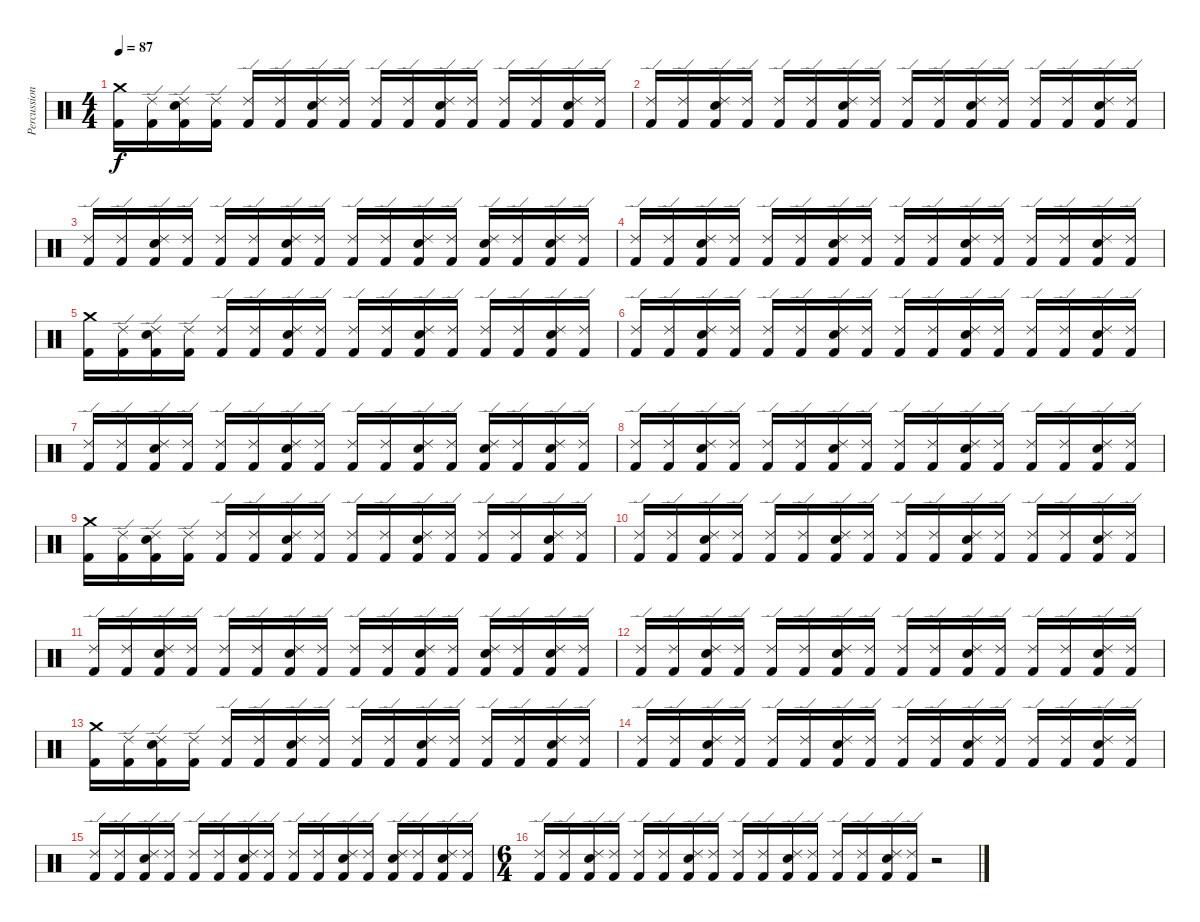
\track ("Percussion" "Percussion") {instrument percussion}
\staff {score}
\articulation defaults
\ts (4 4)
\tempo 87
\clef neutral
\ks c
("Crash medium (hit)" "Kick (hit) 2").16{dy f} ("Ride (edge) 2" "Kick (hit) 2").16 ("Ride (edge) 2" "Snare (hit) 2" "Kick (hit) 2").16 ("Ride (edge) 2" "Kick (hit) 2").16 ("Ride (edge) 2" "Kick (hit) 2").16 ("Ride (edge) 2" "Kick (hit) 2").16 ("Ride (edge) 2" "Snare (hit) 2" "Kick (hit) 2").16 ("Ride (edge) 2" "Kick (hit) 2").16 ("Ride (edge) 2" "Kick (hit) 2").16 ("Ride (edge) 2" "Kick (hit) 2").16 ("Ride (edge) 2" "Snare (hit) 2" "Kick (hit) 2").16 ("Ride (edge) 2" "Kick (hit) 2").16 ("Ride (edge) 2" "Kick (hit) 2").16 ("Ride (edge) 2" "Kick (hit) 2").16 ("Ride (edge) 2" "Snare (hit) 2" "Kick (hit) 2").16 ("Ride (edge) 2" "Kick (hit) 2").16 |
("Ride (edge) 2" "Kick (hit) 2").16 ("Ride (edge) 2" "Kick (hit) 2").16 ("Ride (edge) 2" "Snare (hit) 2" "Kick (hit) 2").16 ("Ride (edge) 2" "Kick (hit) 2").16 ("Ride (edge) 2" "Kick (hit) 2").16 ("Ride (edge) 2" "Kick (hit) 2").16 ("Ride (edge) 2" "Snare (hit) 2" "Kick (hit) 2").16 ("Ride (edge) 2" "Kick (hit) 2").16 ("Ride (edge) 2" "Kick (hit) 2").16 ("Ride (edge) 2" "Kick (hit) 2").16 ("Ride (edge) 2" "Snare (hit) 2" "Kick (hit) 2").16 ("Ride (edge) 2" "Kick (hit) 2").16 ("Ride (edge) 2" "Kick (hit) 2").16 ("Ride (edge) 2" "Kick (hit) 2").16 ("Ride (edge) 2" "Snare (hit) 2" "Kick (hit) 2").16 ("Ride (edge) 2" "Kick (hit) 2").16 |
("Ride (edge) 2" "Kick (hit) 2").16 ("Ride (edge) 2" "Kick (hit) 2").16 ("Ride (edge) 2" "Snare (hit) 2" "Kick (hit) 2").16 ("Ride (edge) 2" "Kick (hit) 2").16 ("Ride (edge) 2" "Kick (hit) 2").16 ("Ride (edge) 2" "Kick (hit) 2").16 ("Ride (edge) 2" "Snare (hit) 2" "Kick (hit) 2").16 ("Ride (edge) 2" "Kick (hit) 2").16 ("Ride (edge) 2" "Kick (hit) 2").16 ("Ride (edge) 2" "Kick (hit) 2").16 ("Ride (edge) 2" "Snare (hit) 2" "Kick (hit) 2").16 ("Ride (edge) 2" "Kick (hit) 2").16 ("Ride (edge) 2" "Snare (hit) 2" "Kick (hit) 2").16 ("Ride (edge) 2" "Kick (hit) 2").16 ("Ride (edge) 2" "Snare (hit) 2" "Kick (hit) 2").16 ("Ride (edge) 2" "Kick (hit) 2").16 |
("Ride (edge) 2" "Kick (hit) 2").16 ("Ride (edge) 2" "Kick (hit) 2").16 ("Ride (edge) 2" "Snare (hit) 2" "Kick (hit) 2").16 ("Ride (edge) 2" "Kick (hit) 2").16 ("Ride (edge) 2" "Kick (hit) 2").16 ("Ride (edge) 2" "Kick (hit) 2").16 ("Ride (edge) 2" "Snare (hit) 2" "Kick (hit) 2").16 ("Ride (edge) 2" "Kick (hit) 2").16 ("Ride (edge) 2" "Kick (hit) 2").16 ("Ride (edge) 2" "Kick (hit) 2").16 ("Ride (edge) 2" "Snare (hit) 2" "Kick (hit) 2").16 ("Ride (edge) 2" "Kick (hit) 2").16 ("Ride (edge) 2" "Kick (hit) 2").16 ("Ride (edge) 2" "Kick (hit) 2").16 ("Ride (edge) 2" "Snare (hit) 2" "Kick (hit) 2").16 ("Ride (edge) 2" "Kick (hit) 2").16 |
("Crash medium (hit)" "Kick (hit) 2").16 ("Ride (edge) 2" "Kick (hit) 2").16 ("Ride (edge) 2" "Snare (hit) 2" "Kick (hit) 2").16 ("Ride (edge) 2" "Kick (hit) 2").16 ("Ride (edge) 2" "Kick (hit) 2").16 ("Ride (edge) 2" "Kick (hit) 2").16 ("Ride (edge) 2" "Snare (hit) 2" "Kick (hit) 2").16 ("Ride (edge) 2" "Kick (hit) 2").16 ("Ride (edge) 2" "Kick (hit) 2").16 ("Ride (edge) 2" "Kick (hit) 2").16 ("Ride (edge) 2" "Snare (hit) 2" "Kick (hit) 2").16 ("Ride (edge) 2" "Kick (hit) 2").16 ("Ride (edge) 2" "Kick (hit) 2").16 ("Ride (edge) 2" "Kick (hit) 2").16 ("Ride (edge) 2" "Snare (hit) 2" "Kick (hit) 2").16 ("Ride (edge) 2" "Kick (hit) 2").16 |
("Ride (edge) 2" "Kick (hit) 2").16 ("Ride (edge) 2" "Kick (hit) 2").16 ("Ride (edge) 2" "Snare (hit) 2" "Kick (hit) 2").16 ("Ride (edge) 2" "Kick (hit) 2").16 ("Ride (edge) 2" "Kick (hit) 2").16 ("Ride (edge) 2" "Kick (hit) 2").16 ("Ride (edge) 2" "Snare (hit) 2" "Kick (hit) 2").16 ("Ride (edge) 2" "Kick (hit) 2").16 ("Ride (edge) 2" "Kick (hit) 2").16 ("Ride (edge) 2" "Kick (hit) 2").16 ("Ride (edge) 2" "Snare (hit) 2" "Kick (hit) 2").16 ("Ride (edge) 2" "Kick (hit) 2").16 ("Ride (edge) 2" "Kick (hit) 2").16 ("Ride (edge) 2" "Kick (hit) 2").16 ("Ride (edge) 2" "Snare (hit) 2" "Kick (hit) 2").16 ("Ride (edge) 2" "Kick (hit) 2").16 |
("Ride (edge) 2" "Kick (hit) 2").16 ("Ride (edge) 2" "Kick (hit) 2").16 ("Ride (edge) 2" "Snare (hit) 2" "Kick (hit) 2").16 ("Ride (edge) 2" "Kick (hit) 2").16 ("Ride (edge) 2" "Kick (hit) 2").16 ("Ride (edge) 2" "Kick (hit) 2").16 ("Ride (edge) 2" "Snare (hit) 2" "Kick (hit) 2").16 ("Ride (edge) 2" "Kick (hit) 2").16 ("Ride (edge) 2" "Kick (hit) 2").16 ("Ride (edge) 2" "Kick (hit) 2").16 ("Ride (edge) 2" "Snare (hit) 2" "Kick (hit) 2").16 ("Ride (edge) 2" "Kick (hit) 2").16 ("Ride (edge) 2" "Snare (hit) 2" "Kick (hit) 2").16 ("Ride (edge) 2" "Kick (hit) 2").16 ("Ride (edge) 2" "Snare (hit) 2" "Kick (hit) 2").16 ("Ride (edge) 2" "Kick (hit) 2").16 |
("Ride (edge) 2" "Kick (hit) 2").16 ("Ride (edge) 2" "Kick (hit) 2").16 ("Ride (edge) 2" "Snare (hit) 2" "Kick (hit) 2").16 ("Ride (edge) 2" "Kick (hit) 2").16 ("Ride (edge) 2" "Kick (hit) 2").16 ("Ride (edge) 2" "Kick (hit) 2").16 ("Ride (edge) 2" "Snare (hit) 2" "Kick (hit) 2").16 ("Ride (edge) 2" "Kick (hit) 2").16 ("Ride (edge) 2" "Kick (hit) 2").16 ("Ride (edge) 2" "Kick (hit) 2").16 ("Ride (edge) 2" "Snare (hit) 2" "Kick (hit) 2").16 ("Ride (edge) 2" "Kick (hit) 2").16 ("Ride (edge) 2" "Kick (hit) 2").16 ("Ride (edge) 2" "Kick (hit) 2").16 ("Ride (edge) 2" "Snare (hit) 2" "Kick (hit) 2").16 ("Ride (edge) 2" "Kick (hit) 2").16 |
("Crash medium (hit)" "Kick (hit) 2").16 ("Ride (edge) 2" "Kick (hit) 2").16 ("Ride (edge) 2" "Snare (hit) 2" "Kick (hit) 2").16 ("Ride (edge) 2" "Kick (hit) 2").16 ("Ride (edge) 2" "Kick (hit) 2").16 ("Ride (edge) 2" "Kick (hit) 2").16 ("Ride (edge) 2" "Snare (hit) 2" "Kick (hit) 2").16 ("Ride (edge) 2" "Kick (hit) 2").16 ("Ride (edge) 2" "Kick (hit) 2").16 ("Ride (edge) 2" "Kick (hit) 2").16 ("Ride (edge) 2" "Snare (hit) 2" "Kick (hit) 2").16 ("Ride (edge) 2" "Kick (hit) 2").16 ("Ride (edge) 2" "Kick (hit) 2").16 ("Ride (edge) 2" "Kick (hit) 2").16 ("Ride (edge) 2" "Snare (hit) 2" "Kick (hit) 2").16 ("Ride (edge) 2" "Kick (hit) 2").16 |
("Ride (edge) 2" "Kick (hit) 2").16 ("Ride (edge) 2" "Kick (hit) 2").16 ("Ride (edge) 2" "Snare (hit) 2" "Kick (hit) 2").16 ("Ride (edge) 2" "Kick (hit) 2").16 ("Ride (edge) 2" "Kick (hit) 2").16 ("Ride (edge) 2" "Kick (hit) 2").16 ("Ride (edge) 2" "Snare (hit) 2" "Kick (hit) 2").16 ("Ride (edge) 2" "Kick (hit) 2").16 ("Ride (edge) 2" "Kick (hit) 2").16 ("Ride (edge) 2" "Kick (hit) 2").16 ("Ride (edge) 2" "Snare (hit) 2" "Kick (hit) 2").16 ("Ride (edge) 2" "Kick (hit) 2").16 ("Ride (edge) 2" "Kick (hit) 2").16 ("Ride (edge) 2" "Kick (hit) 2").16 ("Ride (edge) 2" "Snare (hit) 2" "Kick (hit) 2").16 ("Ride (edge) 2" "Kick (hit) 2").16 |
("Ride (edge) 2" "Kick (hit) 2").16 ("Ride (edge) 2" "Kick (hit) 2").16 ("Ride (edge) 2" "Snare (hit) 2" "Kick (hit) 2").16 ("Ride (edge) 2" "Kick (hit) 2").16 ("Ride (edge) 2" "Kick (hit) 2").16 ("Ride (edge) 2" "Kick (hit) 2").16 ("Ride (edge) 2" "Snare (hit) 2" "Kick (hit) 2").16 ("Ride (edge) 2" "Kick (hit) 2").16 ("Ride (edge) 2" "Kick (hit) 2").16 ("Ride (edge) 2" "Kick (hit) 2").16 ("Ride (edge) 2" "Snare (hit) 2" "Kick (hit) 2").16 ("Ride (edge) 2" "Kick (hit) 2").16 ("Ride (edge) 2" "Snare (hit) 2" "Kick (hit) 2").16 ("Ride (edge) 2" "Kick (hit) 2").16 ("Ride (edge) 2" "Snare (hit) 2" "Kick (hit) 2").16 ("Ride (edge) 2" "Kick (hit) 2").16 |
("Ride (edge) 2" "Kick (hit) 2").16 ("Ride (edge) 2" "Kick (hit) 2").16 ("Ride (edge) 2" "Snare (hit) 2" "Kick (hit) 2").16 ("Ride (edge) 2" "Kick (hit) 2").16 ("Ride (edge) 2" "Kick (hit) 2").16 ("Ride (edge) 2" "Kick (hit) 2").16 ("Ride (edge) 2" "Snare (hit) 2" "Kick (hit) 2").16 ("Ride (edge) 2" "Kick (hit) 2").16 ("Ride (edge) 2" "Kick (hit) 2").16 ("Ride (edge) 2" "Kick (hit) 2").16 ("Ride (edge) 2" "Snare (hit) 2" "Kick (hit) 2").16 ("Ride (edge) 2" "Kick (hit) 2").16 ("Ride (edge) 2" "Kick (hit) 2").16 ("Ride (edge) 2" "Kick (hit) 2").16 ("Ride (edge) 2" "Snare (hit) 2" "Kick (hit) 2").16 ("Ride (edge) 2" "Kick (hit) 2").16 |
("Crash medium (hit)" "Kick (hit) 2").16 ("Ride (edge) 2" "Kick (hit) 2").16 ("Ride (edge) 2" "Snare (hit) 2" "Kick (hit) 2").16 ("Ride (edge) 2" "Kick (hit) 2").16 ("Ride (edge) 2" "Kick (hit) 2").16 ("Ride (edge) 2" "Kick (hit) 2").16 ("Ride (edge) 2" "Snare (hit) 2" "Kick (hit) 2").16 ("Ride (edge) 2" "Kick (hit) 2").16 ("Ride (edge) 2" "Kick (hit) 2").16 ("Ride (edge) 2" "Kick (hit) 2").16 ("Ride (edge) 2" "Snare (hit) 2" "Kick (hit) 2").16 ("Ride (edge) 2" "Kick (hit) 2").16 ("Ride (edge) 2" "Kick (hit) 2").16 ("Ride (edge) 2" "Kick (hit) 2").16 ("Ride (edge) 2" "Snare (hit) 2" "Kick (hit) 2").16 ("Ride (edge) 2" "Kick (hit) 2").16 |
("Ride (edge) 2" "Kick (hit) 2").16 ("Ride (edge) 2" "Kick (hit) 2").16 ("Ride (edge) 2" "Snare (hit) 2" "Kick (hit) 2").16 ("Ride (edge) 2" "Kick (hit) 2").16 ("Ride (edge) 2" "Kick (hit) 2").16 ("Ride (edge) 2" "Kick (hit) 2").16 ("Ride (edge) 2" "Snare (hit) 2" "Kick (hit) 2").16 ("Ride (edge) 2" "Kick (hit) 2").16 ("Ride (edge) 2" "Kick (hit) 2").16 ("Ride (edge) 2" "Kick (hit) 2").16 ("Ride (edge) 2" "Snare (hit) 2" "Kick (hit) 2").16 ("Ride (edge) 2" "Kick (hit) 2").16 ("Ride (edge) 2" "Kick (hit) 2").16 ("Ride (edge) 2" "Kick (hit) 2").16 ("Ride (edge) 2" "Snare (hit) 2" "Kick (hit) 2").16 ("Ride (edge) 2" "Kick (hit) 2").16 |
("Ride (edge) 2" "Kick (hit) 2").16 ("Ride (edge) 2" "Kick (hit) 2").16 ("Ride (edge) 2" "Snare (hit) 2" "Kick (hit) 2").16 ("Ride (edge) 2" "Kick (hit) 2").16 ("Ride (edge) 2" "Kick (hit) 2").16 ("Ride (edge) 2" "Kick (hit) 2").16 ("Ride (edge) 2" "Snare (hit) 2" "Kick (hit) 2").16 ("Ride (edge) 2" "Kick (hit) 2").16 ("Ride (edge) 2" "Kick (hit) 2").16 ("Ride (edge) 2" "Kick (hit) 2").16 ("Ride (edge) 2" "Snare (hit) 2" "Kick (hit) 2").16 ("Ride (edge) 2" "Kick (hit) 2").16 ("Ride (edge) 2" "Snare (hit) 2" "Kick (hit) 2").16 ("Ride (edge) 2" "Kick (hit) 2").16 ("Ride (edge) 2" "Snare (hit) 2" "Kick (hit) 2").16 ("Ride (edge) 2" "Kick (hit) 2").16 |
\ts (6 4)
("Ride (edge) 2" "Kick (hit) 2").16 ("Ride (edge) 2" "Kick (hit) 2").16 ("Ride (edge) 2" "Snare (hit) 2" "Kick (hit) 2").16 ("Ride (edge) 2" "Kick (hit) 2").16 ("Ride (edge) 2" "Kick (hit) 2").16 ("Ride (edge) 2" "Kick (hit) 2").16 ("Ride (edge) 2" "Snare (hit) 2" "Kick (hit) 2").16 ("Ride (edge) 2" "Kick (hit) 2").16 ("Ride (edge) 2" "Kick (hit) 2").16 ("Ride (edge) 2" "Kick (hit) 2").16 ("Ride (edge) 2" "Snare (hit) 2" "Kick (hit) 2").16 ("Ride (edge) 2" "Kick (hit) 2").16 ("Ride (edge) 2" "Kick (hit) 2").16 ("Ride (edge) 2" "Kick (hit) 2").16 ("Ride (edge) 2" "Snare (hit) 2" "Kick (hit) 2").16 ("Ride (edge) 2" "Kick (hit) 2").16 r.2
